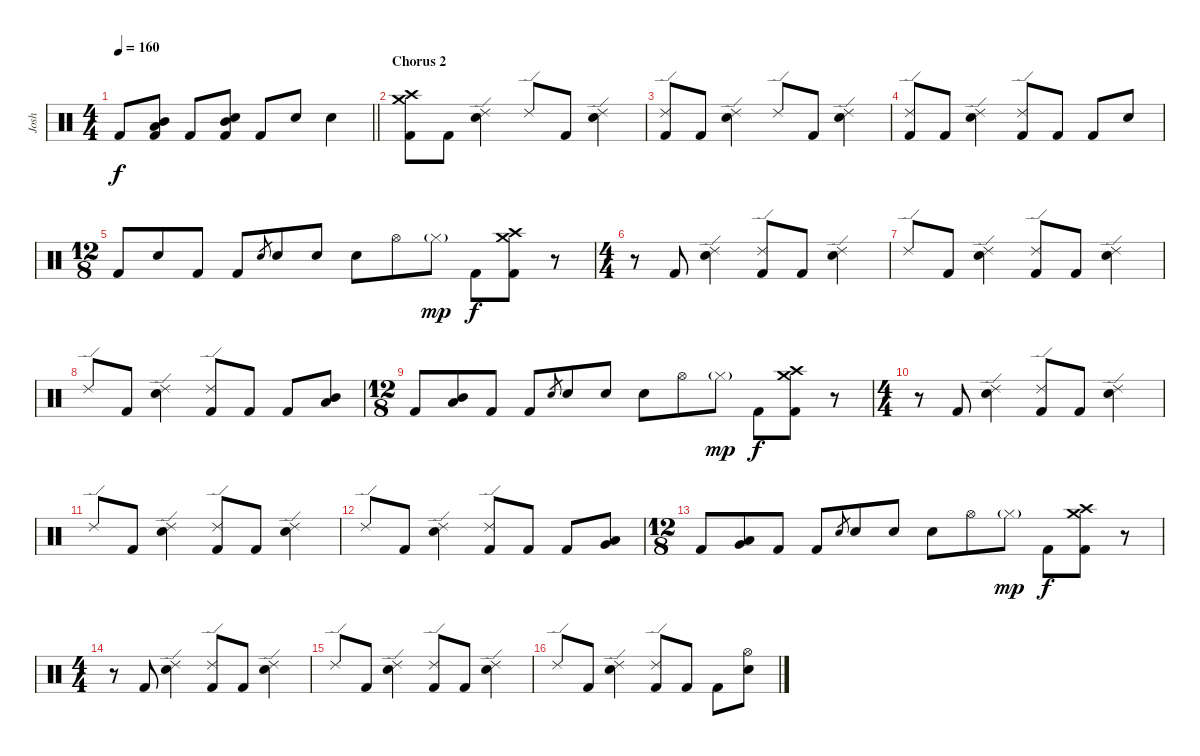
\track ("Josh" "Josh") {instrument percussion}
\staff {score}
\articulation defaults
\ts (4 4)
\tempo 160
\clef neutral
\barLineRight lightlight
\ks c "Kick (hit) 2".8{dy f}
("Mid Tom (hit)" "Low Tom (hit)" "Kick (hit) 2").8 "Kick (hit) 2".8 ("Mid Tom (hit)" "Electric Snare (hit)" "Kick (hit) 2").8 "Kick (hit) 2".8 "Electric Snare (hit)".8 "Electric Snare (hit)".4 |
\section ("" "Chorus 2")
("Crash high (hit)" "Crash medium (hit)" "Kick (hit) 2").8 "Kick (hit) 2".8 ("Ride (edge) 2" "Electric Snare (hit)").4 "Ride (edge) 2".8 "Kick (hit) 2".8 ("Ride (edge) 2" "Electric Snare (hit)").4 |
("Ride (edge) 2" "Kick (hit) 2").8 "Kick (hit) 2".8 ("Ride (edge) 2" "Electric Snare (hit)").4 "Ride (edge) 2".8 "Kick (hit) 2".8 ("Ride (edge) 2" "Electric Snare (hit)").4 |
("Ride (edge) 2" "Kick (hit) 2").8 "Kick (hit) 2".8 ("Ride (edge) 2" "Electric Snare (hit)").4 ("Ride (edge) 2" "Kick (hit) 2").8 "Kick (hit) 2".8 "Kick (hit) 2".8 "Electric Snare (hit)".8 |
\ts (12 8)
"Kick (hit) 2".8 "Electric Snare (hit)".8 "Kick (hit) 2".8 "Kick (hit) 2".8 "Electric Snare (hit)".8{gr} "Electric Snare (hit)".8 "Electric Snare (hit)".8 "Electric Snare (hit)".8 "Hi-Hat (open)".8 "Hi-Hat (closed)"{g}.8{dy mp} "Kick (hit) 2".8{dy f} ("Crash high (hit)" "Crash medium (hit)" "Kick (hit) 2").8 r.8 |
\ts (4 4)
r.8 "Kick (hit) 2".8 ("Ride (edge) 2" "Electric Snare (hit)").4 ("Ride (edge) 2" "Kick (hit) 2").8 "Kick (hit) 2".8 ("Ride (edge) 2" "Electric Snare (hit)").4 |
"Ride (edge) 2".8 "Kick (hit) 2".8 ("Ride (edge) 2" "Electric Snare (hit)").4 ("Ride (edge) 2" "Kick (hit) 2").8 "Kick (hit) 2".8 ("Ride (edge) 2" "Electric Snare (hit)").4 |
"Ride (edge) 2".8 "Kick (hit) 2".8 ("Ride (edge) 2" "Electric Snare (hit)").4 ("Ride (edge) 2" "Kick (hit) 2").8 "Kick (hit) 2".8 "Kick (hit) 2".8 ("Mid Tom (hit)" "Low Tom (hit)").8 |
\ts (12 8)
"Kick (hit) 2".8 ("Mid Tom (hit)" "Low Tom (hit)").8 "Kick (hit) 2".8 "Kick (hit) 2".8 "Electric Snare (hit)".8{gr} "Electric Snare (hit)".8 "Electric Snare (hit)".8 "Electric Snare (hit)".8 "Hi-Hat (open)".8 "Hi-Hat (closed)"{g}.8{dy mp} "Kick (hit) 2".8{dy f} ("Crash high (hit)" "Crash medium (hit)" "Kick (hit) 2").8 r.8 |
\ts (4 4)
r.8 "Kick (hit) 2".8 ("Ride (edge) 2" "Electric Snare (hit)").4 ("Ride (edge) 2" "Kick (hit) 2").8 "Kick (hit) 2".8 ("Ride (edge) 2" "Electric Snare (hit)").4 |
"Ride (edge) 2".8 "Kick (hit) 2".8 ("Ride (edge) 2" "Electric Snare (hit)").4 ("Ride (edge) 2" "Kick (hit) 2").8 "Kick (hit) 2".8 ("Ride (edge) 2" "Electric Snare (hit)").4 |
"Ride (edge) 2".8 "Kick (hit) 2".8 ("Ride (edge) 2" "Electric Snare (hit)").4 ("Ride (edge) 2" "Kick (hit) 2").8 "Kick (hit) 2".8 "Kick (hit) 2".8 ("Low Tom (hit)" "Very Low Tom (hit)").8 |
\ts (12 8)
"Kick (hit) 2".8 ("Low Tom (hit)" "Very Low Tom (hit)").8 "Kick (hit) 2".8 "Kick (hit) 2".8 "Electric Snare (hit)".8{gr} "Electric Snare (hit)".8 "Electric Snare (hit)".8 "Electric Snare (hit)".8 "Hi-Hat (open)".8 "Hi-Hat (closed)"{g}.8{dy mp} "Kick (hit) 2".8{dy f} ("Crash high (hit)" "Crash medium (hit)" "Kick (hit) 2").8 r.8 |
\ts (4 4)
r.8 "Kick (hit) 2".8 ("Ride (edge) 2" "Electric Snare (hit)").4 ("Ride (edge) 2" "Kick (hit) 2").8 "Kick (hit) 2".8 ("Ride (edge) 2" "Electric Snare (hit)").4 |
"Ride (edge) 2".8 "Kick (hit) 2".8 ("Ride (edge) 2" "Electric Snare (hit)").4 ("Ride (edge) 2" "Kick (hit) 2").8 "Kick (hit) 2".8 ("Ride (edge) 2" "Electric Snare (hit)").4 |
"Ride (edge) 2".8 "Kick (hit) 2".8 ("Ride (edge) 2" "Electric Snare (hit)").4 ("Ride (edge) 2" "Kick (hit) 2").8 "Kick (hit) 2".8 "Kick (hit) 2".8 ("Hi-Hat (open)" "Electric Snare (hit)").8
